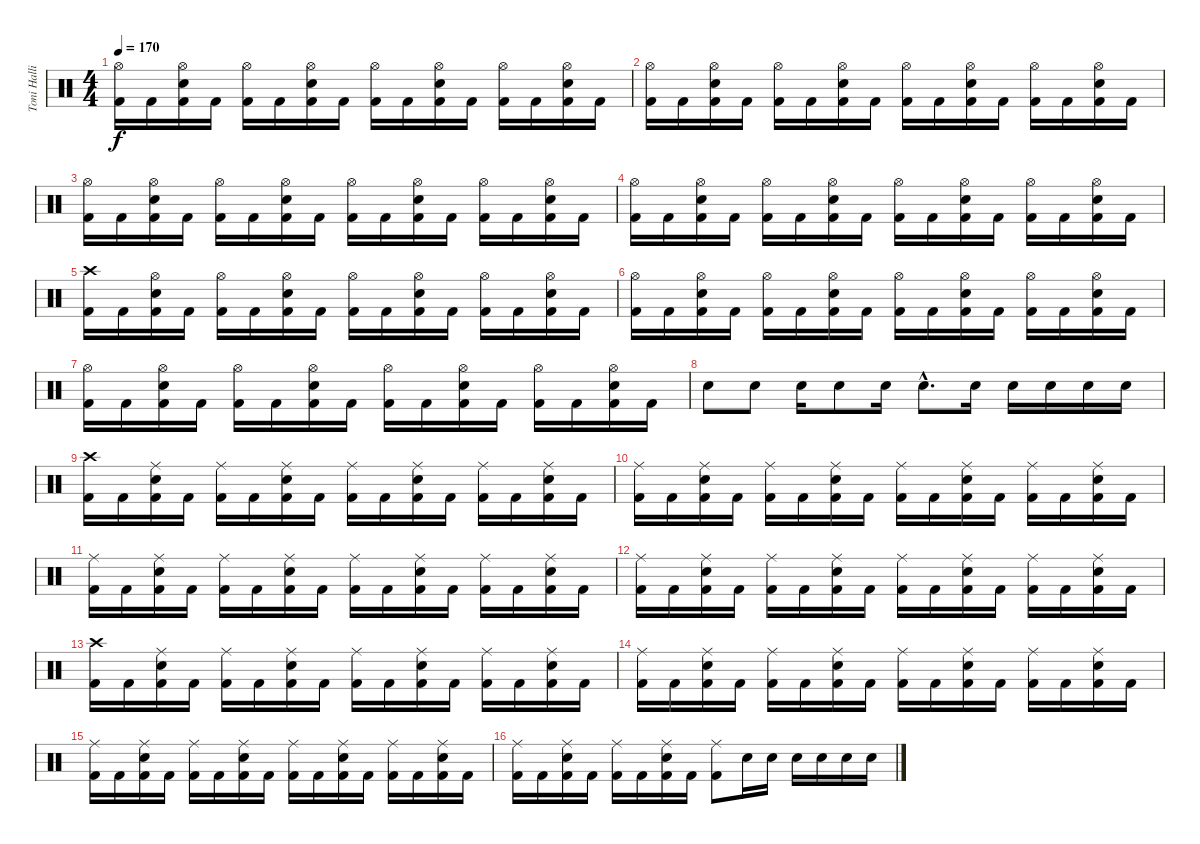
\track ("Toni Hallio" "Toni Halli") {instrument percussion}
\staff {score}
\articulation defaults
\ts (4 4)
\tempo 170
\clef neutral
\ks c
("Hi-Hat (open)" "Kick (hit) 2").16{dy f} "Kick (hit) 2".16 ("Hi-Hat (open)" "Snare (hit) 2" "Kick (hit) 2").16 "Kick (hit) 2".16 ("Hi-Hat (open)" "Kick (hit) 2").16 "Kick (hit) 2".16 ("Hi-Hat (open)" "Snare (hit) 2" "Kick (hit) 2").16 "Kick (hit) 2".16 ("Hi-Hat (open)" "Kick (hit) 2").16 "Kick (hit) 2".16 ("Hi-Hat (open)" "Snare (hit) 2" "Kick (hit) 2").16 "Kick (hit) 2".16 ("Hi-Hat (open)" "Kick (hit) 2").16 "Kick (hit) 2".16 ("Hi-Hat (open)" "Snare (hit) 2" "Kick (hit) 2").16 "Kick (hit) 2".16 |
("Hi-Hat (open)" "Kick (hit) 2").16 "Kick (hit) 2".16 ("Hi-Hat (open)" "Snare (hit) 2" "Kick (hit) 2").16 "Kick (hit) 2".16 ("Hi-Hat (open)" "Kick (hit) 2").16 "Kick (hit) 2".16 ("Hi-Hat (open)" "Snare (hit) 2" "Kick (hit) 2").16 "Kick (hit) 2".16 ("Hi-Hat (open)" "Kick (hit) 2").16 "Kick (hit) 2".16 ("Hi-Hat (open)" "Snare (hit) 2" "Kick (hit) 2").16 "Kick (hit) 2".16 ("Hi-Hat (open)" "Kick (hit) 2").16 "Kick (hit) 2".16 ("Hi-Hat (open)" "Snare (hit) 2" "Kick (hit) 2").16 "Kick (hit) 2".16 |
("Hi-Hat (open)" "Kick (hit) 2").16 "Kick (hit) 2".16 ("Hi-Hat (open)" "Snare (hit) 2" "Kick (hit) 2").16 "Kick (hit) 2".16 ("Hi-Hat (open)" "Kick (hit) 2").16 "Kick (hit) 2".16 ("Hi-Hat (open)" "Snare (hit) 2" "Kick (hit) 2").16 "Kick (hit) 2".16 ("Hi-Hat (open)" "Kick (hit) 2").16 "Kick (hit) 2".16 ("Hi-Hat (open)" "Snare (hit) 2" "Kick (hit) 2").16 "Kick (hit) 2".16 ("Hi-Hat (open)" "Kick (hit) 2").16 "Kick (hit) 2".16 ("Hi-Hat (open)" "Snare (hit) 2" "Kick (hit) 2").16 "Kick (hit) 2".16 |
("Hi-Hat (open)" "Kick (hit) 2").16 "Kick (hit) 2".16 ("Hi-Hat (open)" "Snare (hit) 2" "Kick (hit) 2").16 "Kick (hit) 2".16 ("Hi-Hat (open)" "Kick (hit) 2").16 "Kick (hit) 2".16 ("Hi-Hat (open)" "Snare (hit) 2" "Kick (hit) 2").16 "Kick (hit) 2".16 ("Hi-Hat (open)" "Kick (hit) 2").16 "Kick (hit) 2".16 ("Hi-Hat (open)" "Snare (hit) 2" "Kick (hit) 2").16 "Kick (hit) 2".16 ("Hi-Hat (open)" "Kick (hit) 2").16 "Kick (hit) 2".16 ("Hi-Hat (open)" "Snare (hit) 2" "Kick (hit) 2").16 "Kick (hit) 2".16 |
("Crash high (hit)" "Kick (hit) 2").16 "Kick (hit) 2".16 ("Hi-Hat (open)" "Snare (hit) 2" "Kick (hit) 2").16 "Kick (hit) 2".16 ("Hi-Hat (open)" "Kick (hit) 2").16 "Kick (hit) 2".16 ("Hi-Hat (open)" "Snare (hit) 2" "Kick (hit) 2").16 "Kick (hit) 2".16 ("Hi-Hat (open)" "Kick (hit) 2").16 "Kick (hit) 2".16 ("Hi-Hat (open)" "Snare (hit) 2" "Kick (hit) 2").16 "Kick (hit) 2".16 ("Hi-Hat (open)" "Kick (hit) 2").16 "Kick (hit) 2".16 ("Hi-Hat (open)" "Snare (hit) 2" "Kick (hit) 2").16 "Kick (hit) 2".16 |
("Hi-Hat (open)" "Kick (hit) 2").16 "Kick (hit) 2".16 ("Hi-Hat (open)" "Snare (hit) 2" "Kick (hit) 2").16 "Kick (hit) 2".16 ("Hi-Hat (open)" "Kick (hit) 2").16 "Kick (hit) 2".16 ("Hi-Hat (open)" "Snare (hit) 2" "Kick (hit) 2").16 "Kick (hit) 2".16 ("Hi-Hat (open)" "Kick (hit) 2").16 "Kick (hit) 2".16 ("Hi-Hat (open)" "Snare (hit) 2" "Kick (hit) 2").16 "Kick (hit) 2".16 ("Hi-Hat (open)" "Kick (hit) 2").16 "Kick (hit) 2".16 ("Hi-Hat (open)" "Snare (hit) 2" "Kick (hit) 2").16 "Kick (hit) 2".16 |
("Hi-Hat (open)" "Kick (hit) 2").16 "Kick (hit) 2".16 ("Hi-Hat (open)" "Snare (hit) 2" "Kick (hit) 2").16 "Kick (hit) 2".16 ("Hi-Hat (open)" "Kick (hit) 2").16 "Kick (hit) 2".16 ("Hi-Hat (open)" "Snare (hit) 2" "Kick (hit) 2").16 "Kick (hit) 2".16 ("Hi-Hat (open)" "Kick (hit) 2").16 "Kick (hit) 2".16 ("Hi-Hat (open)" "Snare (hit) 2" "Kick (hit) 2").16 "Kick (hit) 2".16 ("Hi-Hat (open)" "Kick (hit) 2").16 "Kick (hit) 2".16 ("Hi-Hat (open)" "Snare (hit) 2" "Kick (hit) 2").16 "Kick (hit) 2".16 |
"Snare (hit) 2".8 "Snare (hit) 2".8 "Snare (hit) 2".16 "Snare (hit) 2".8 "Snare (hit) 2".16 "Snare (hit) 2"{hac}.8{d} "Snare (hit) 2".16 "Snare (hit) 2".16 "Snare (hit) 2".16 "Snare (hit) 2".16 "Snare (hit) 2".16 |
("Crash high (hit)" "Kick (hit) 2").16 "Kick (hit) 2".16 ("Ride (middle)" "Snare (hit) 2" "Kick (hit) 2").16 "Kick (hit) 2".16 ("Ride (middle)" "Kick (hit) 2").16 "Kick (hit) 2".16 ("Ride (middle)" "Snare (hit) 2" "Kick (hit) 2").16 "Kick (hit) 2".16 ("Ride (middle)" "Kick (hit) 2").16 "Kick (hit) 2".16 ("Ride (middle)" "Snare (hit) 2" "Kick (hit) 2").16 "Kick (hit) 2".16 ("Ride (middle)" "Kick (hit) 2").16 "Kick (hit) 2".16 ("Ride (middle)" "Snare (hit) 2" "Kick (hit) 2").16 "Kick (hit) 2".16 |
("Ride (middle)" "Kick (hit) 2").16 "Kick (hit) 2".16 ("Ride (middle)" "Snare (hit) 2" "Kick (hit) 2").16 "Kick (hit) 2".16 ("Ride (middle)" "Kick (hit) 2").16 "Kick (hit) 2".16 ("Ride (middle)" "Snare (hit) 2" "Kick (hit) 2").16 "Kick (hit) 2".16 ("Ride (middle)" "Kick (hit) 2").16 "Kick (hit) 2".16 ("Ride (middle)" "Snare (hit) 2" "Kick (hit) 2").16 "Kick (hit) 2".16 ("Ride (middle)" "Kick (hit) 2").16 "Kick (hit) 2".16 ("Ride (middle)" "Snare (hit) 2" "Kick (hit) 2").16 "Kick (hit) 2".16 |
("Ride (middle)" "Kick (hit) 2").16 "Kick (hit) 2".16 ("Ride (middle)" "Snare (hit) 2" "Kick (hit) 2").16 "Kick (hit) 2".16 ("Ride (middle)" "Kick (hit) 2").16 "Kick (hit) 2".16 ("Ride (middle)" "Snare (hit) 2" "Kick (hit) 2").16 "Kick (hit) 2".16 ("Ride (middle)" "Kick (hit) 2").16 "Kick (hit) 2".16 ("Ride (middle)" "Snare (hit) 2" "Kick (hit) 2").16 "Kick (hit) 2".16 ("Ride (middle)" "Kick (hit) 2").16 "Kick (hit) 2".16 ("Ride (middle)" "Snare (hit) 2" "Kick (hit) 2").16 "Kick (hit) 2".16 |
("Ride (middle)" "Kick (hit) 2").16 "Kick (hit) 2".16 ("Ride (middle)" "Snare (hit) 2" "Kick (hit) 2").16 "Kick (hit) 2".16 ("Ride (middle)" "Kick (hit) 2").16 "Kick (hit) 2".16 ("Ride (middle)" "Snare (hit) 2" "Kick (hit) 2").16 "Kick (hit) 2".16 ("Ride (middle)" "Kick (hit) 2").16 "Kick (hit) 2".16 ("Ride (middle)" "Snare (hit) 2" "Kick (hit) 2").16 "Kick (hit) 2".16 ("Ride (middle)" "Kick (hit) 2").16 "Kick (hit) 2".16 ("Ride (middle)" "Snare (hit) 2" "Kick (hit) 2").16 "Kick (hit) 2".16 |
("Crash high (hit)" "Kick (hit) 2").16 "Kick (hit) 2".16 ("Ride (middle)" "Snare (hit) 2" "Kick (hit) 2").16 "Kick (hit) 2".16 ("Ride (middle)" "Kick (hit) 2").16 "Kick (hit) 2".16 ("Ride (middle)" "Snare (hit) 2" "Kick (hit) 2").16 "Kick (hit) 2".16 ("Ride (middle)" "Kick (hit) 2").16 "Kick (hit) 2".16 ("Ride (middle)" "Snare (hit) 2" "Kick (hit) 2").16 "Kick (hit) 2".16 ("Ride (middle)" "Kick (hit) 2").16 "Kick (hit) 2".16 ("Ride (middle)" "Snare (hit) 2" "Kick (hit) 2").16 "Kick (hit) 2".16 |
("Ride (middle)" "Kick (hit) 2").16 "Kick (hit) 2".16 ("Ride (middle)" "Snare (hit) 2" "Kick (hit) 2").16 "Kick (hit) 2".16 ("Ride (middle)" "Kick (hit) 2").16 "Kick (hit) 2".16 ("Ride (middle)" "Snare (hit) 2" "Kick (hit) 2").16 "Kick (hit) 2".16 ("Ride (middle)" "Kick (hit) 2").16 "Kick (hit) 2".16 ("Ride (middle)" "Snare (hit) 2" "Kick (hit) 2").16 "Kick (hit) 2".16 ("Ride (middle)" "Kick (hit) 2").16 "Kick (hit) 2".16 ("Ride (middle)" "Snare (hit) 2" "Kick (hit) 2").16 "Kick (hit) 2".16 |
("Ride (middle)" "Kick (hit) 2").16 "Kick (hit) 2".16 ("Ride (middle)" "Snare (hit) 2" "Kick (hit) 2").16 "Kick (hit) 2".16 ("Ride (middle)" "Kick (hit) 2").16 "Kick (hit) 2".16 ("Ride (middle)" "Snare (hit) 2" "Kick (hit) 2").16 "Kick (hit) 2".16 ("Ride (middle)" "Kick (hit) 2").16 "Kick (hit) 2".16 ("Ride (middle)" "Snare (hit) 2" "Kick (hit) 2").16 "Kick (hit) 2".16 ("Ride (middle)" "Kick (hit) 2").16 "Kick (hit) 2".16 ("Ride (middle)" "Snare (hit) 2" "Kick (hit) 2").16 "Kick (hit) 2".16 |
("Ride (middle)" "Kick (hit) 2").16 "Kick (hit) 2".16 ("Ride (middle)" "Snare (hit) 2" "Kick (hit) 2").16 "Kick (hit) 2".16 ("Ride (middle)" "Kick (hit) 2").16 "Kick (hit) 2".16 ("Ride (middle)" "Snare (hit) 2" "Kick (hit) 2").16 "Kick (hit) 2".16 ("Ride (middle)" "Kick (hit) 2").8 "Snare (hit) 2".16 "Snare (hit) 2".16 "Snare (hit) 2".16 "Snare (hit) 2".16 "Snare (hit) 2".16 "Snare (hit) 2".16
